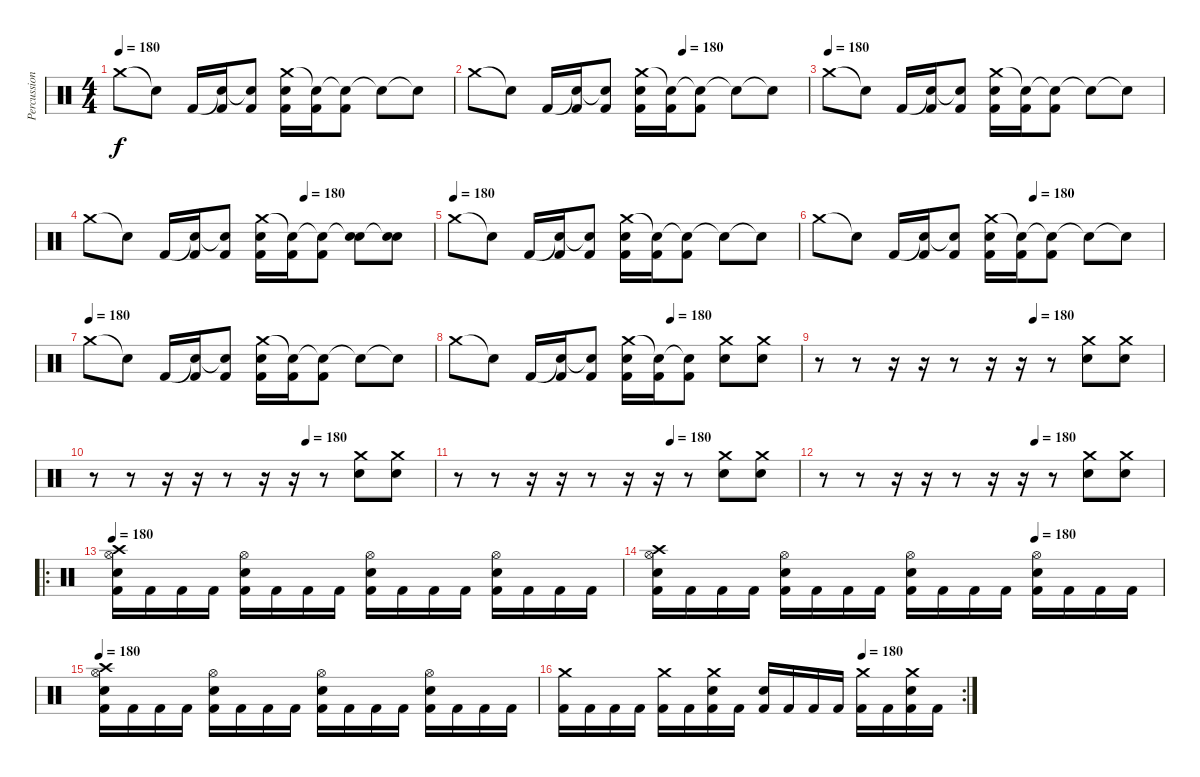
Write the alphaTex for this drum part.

\track ("Percussion" "Percussion") {instrument percussion}
\staff {score}
\articulation defaults
\ts (4 4)
\tempo 180
\clef neutral
\ks c "Crash medium (hit)".8{dy f} "Snare (hit)"{t}.8 "Kick (hit) 2".16
("Snare (hit)"{t} "Kick (hit) 2").16 ("Snare (hit)"{t} "Kick (hit) 2").8 ("Crash medium (hit)" "Electric Snare (hit)" "Kick (hit) 2").16 ("Snare (hit)"{t} "Kick (hit) 2").16 ("Snare (hit)"{t} "Kick (hit) 2").8 "Snare (hit)"{t}.8 "Snare (hit)"{t}.8 |
\tempo (180 0.625)
"Crash medium (hit)".8 "Snare (hit)"{t}.8 "Kick (hit) 2".16 ("Snare (hit)"{t} "Kick (hit) 2").16 ("Snare (hit)"{t} "Kick (hit) 2").8 ("Crash medium (hit)" "Electric Snare (hit)" "Kick (hit) 2").16 ("Snare (hit)"{t} "Kick (hit) 2").16 ("Snare (hit)"{t} "Kick (hit) 2").8 "Snare (hit)"{t}.8 "Snare (hit)"{t}.8 |
\tempo (180)
"Crash medium (hit)".8 "Snare (hit)"{t}.8 "Kick (hit) 2".16 ("Snare (hit)"{t} "Kick (hit) 2").16 ("Snare (hit)"{t} "Kick (hit) 2").8 ("Crash medium (hit)" "Electric Snare (hit)" "Kick (hit) 2").16 ("Snare (hit)"{t} "Kick (hit) 2").16 ("Snare (hit)"{t} "Kick (hit) 2").8 "Snare (hit)"{t}.8 "Snare (hit)"{t}.8 |
\tempo (180 0.625)
"Crash medium (hit)".8 "Snare (hit)"{t}.8 "Kick (hit) 2".16 ("Snare (hit)"{t} "Kick (hit) 2").16 ("Snare (hit)"{t} "Kick (hit) 2").8 ("Crash medium (hit)" "Electric Snare (hit)" "Kick (hit) 2").16 ("Snare (hit)"{t} "Kick (hit) 2").16 ("Snare (hit)"{t} "Kick (hit) 2").8 ("Snare (hit)"{t} "Electric Snare (hit)").8 ("Snare (hit)"{t} "Electric Snare (hit)").8 |
\tempo (180)
"Crash medium (hit)".8 "Snare (hit)"{t}.8 "Kick (hit) 2".16 ("Snare (hit)"{t} "Kick (hit) 2").16 ("Snare (hit)"{t} "Kick (hit) 2").8 ("Crash medium (hit)" "Electric Snare (hit)" "Kick (hit) 2").16 ("Snare (hit)"{t} "Kick (hit) 2").16 ("Snare (hit)"{t} "Kick (hit) 2").8 "Snare (hit)"{t}.8 "Snare (hit)"{t}.8 |
\tempo (180 0.625)
"Crash medium (hit)".8 "Snare (hit)"{t}.8 "Kick (hit) 2".16 ("Snare (hit)"{t} "Kick (hit) 2").16 ("Snare (hit)"{t} "Kick (hit) 2").8 ("Crash medium (hit)" "Electric Snare (hit)" "Kick (hit) 2").16 ("Snare (hit)"{t} "Kick (hit) 2").16 ("Snare (hit)"{t} "Kick (hit) 2").8 "Snare (hit)"{t}.8 "Snare (hit)"{t}.8 |
\tempo (180)
"Crash medium (hit)".8 "Snare (hit)"{t}.8 "Kick (hit) 2".16 ("Snare (hit)"{t} "Kick (hit) 2").16 ("Snare (hit)"{t} "Kick (hit) 2").8 ("Crash medium (hit)" "Electric Snare (hit)" "Kick (hit) 2").16 ("Snare (hit)"{t} "Kick (hit) 2").16 ("Snare (hit)"{t} "Kick (hit) 2").8 "Snare (hit)"{t}.8 "Snare (hit)"{t}.8 |
\tempo (180 0.625)
"Crash medium (hit)".8 "Snare (hit)"{t}.8 "Kick (hit) 2".16 ("Snare (hit)"{t} "Kick (hit) 2").16 ("Snare (hit)"{t} "Kick (hit) 2").8 ("Crash medium (hit)" "Electric Snare (hit)" "Kick (hit) 2").16 ("Snare (hit)"{t} "Kick (hit) 2").16 ("Snare (hit)"{t} "Kick (hit) 2").8 ("Crash medium (hit)" "Electric Snare (hit)").8 ("Crash medium (hit)" "Electric Snare (hit)").8 |
\tempo (180 0.625)
r.8 r.8 r.16 r.16 r.8 r.16 r.16 r.8 ("Crash medium (hit)" "Electric Snare (hit)").8 ("Crash medium (hit)" "Electric Snare (hit)").8 |
\tempo (180 0.625)
r.8 r.8 r.16 r.16 r.8 r.16 r.16 r.8 ("Crash medium (hit)" "Electric Snare (hit)").8 ("Crash medium (hit)" "Electric Snare (hit)").8 |
\tempo (180 0.625)
r.8 r.8 r.16 r.16 r.8 r.16 r.16 r.8 ("Crash medium (hit)" "Electric Snare (hit)").8 ("Crash medium (hit)" "Electric Snare (hit)").8 |
\tempo (180 0.625)
r.8 r.8 r.16 r.16 r.8 r.16 r.16 r.8 ("Crash medium (hit)" "Electric Snare (hit)").8 ("Crash medium (hit)" "Electric Snare (hit)").8 |
\ro
\tempo 180
("Crash high (hit)" "Hi-Hat (open)" "Electric Snare (hit)" "Kick (hit) 2").16 "Kick (hit) 2".16 "Kick (hit) 2".16 "Kick (hit) 2".16 ("Hi-Hat (open)" "Electric Snare (hit)" "Kick (hit) 2").16 "Kick (hit) 2".16 "Kick (hit) 2".16 "Kick (hit) 2".16 ("Hi-Hat (open)" "Electric Snare (hit)" "Kick (hit) 2").16 "Kick (hit) 2".16 "Kick (hit) 2".16 "Kick (hit) 2".16 ("Hi-Hat (open)" "Electric Snare (hit)" "Kick (hit) 2").16 "Kick (hit) 2".16 "Kick (hit) 2".16 "Kick (hit) 2".16 |
\tempo (180 0.75)
("Crash high (hit)" "Hi-Hat (open)" "Electric Snare (hit)" "Kick (hit) 2").16 "Kick (hit) 2".16 "Kick (hit) 2".16 "Kick (hit) 2".16 ("Hi-Hat (open)" "Electric Snare (hit)" "Kick (hit) 2").16 "Kick (hit) 2".16 "Kick (hit) 2".16 "Kick (hit) 2".16 ("Hi-Hat (open)" "Electric Snare (hit)" "Kick (hit) 2").16 "Kick (hit) 2".16 "Kick (hit) 2".16 "Kick (hit) 2".16 ("Hi-Hat (open)" "Electric Snare (hit)" "Kick (hit) 2").16 "Kick (hit) 2".16 "Kick (hit) 2".16 "Kick (hit) 2".16 |
\tempo 180
("Crash high (hit)" "Hi-Hat (open)" "Electric Snare (hit)" "Kick (hit) 2").16 "Kick (hit) 2".16 "Kick (hit) 2".16 "Kick (hit) 2".16 ("Hi-Hat (open)" "Electric Snare (hit)" "Kick (hit) 2").16 "Kick (hit) 2".16 "Kick (hit) 2".16 "Kick (hit) 2".16 ("Hi-Hat (open)" "Electric Snare (hit)" "Kick (hit) 2").16 "Kick (hit) 2".16 "Kick (hit) 2".16 "Kick (hit) 2".16 ("Hi-Hat (open)" "Electric Snare (hit)" "Kick (hit) 2").16 "Kick (hit) 2".16 "Kick (hit) 2".16 "Kick (hit) 2".16 |
\rc 2
\tempo (180 0.75)
("Crash medium (hit)" "Kick (hit) 2").16 "Kick (hit) 2".16 "Kick (hit) 2".16 "Kick (hit) 2".16 ("Crash medium (hit)" "Kick (hit) 2").16 "Kick (hit) 2".16 ("Crash medium (hit)" "Electric Snare (hit)" "Kick (hit) 2").16 "Kick (hit) 2".16 ("Electric Snare (hit)" "Kick (hit) 2").16 "Kick (hit) 2".16 "Kick (hit) 2".16 "Kick (hit) 2".16 ("Crash medium (hit)" "Kick (hit) 2").16 "Kick (hit) 2".16 ("Crash medium (hit)" "Electric Snare (hit)" "Kick (hit) 2").16 "Kick (hit) 2".16
